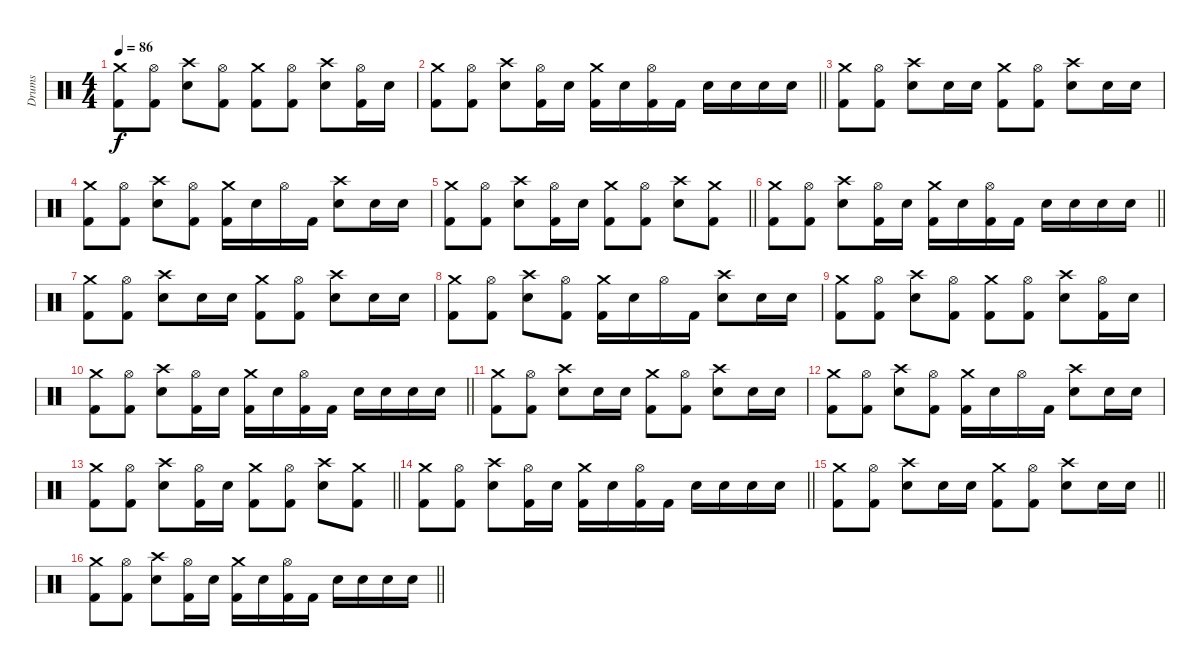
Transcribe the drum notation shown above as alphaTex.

\track ("Drums" "Drums") {instrument percussion}
\staff {score}
\articulation defaults
\ts (4 4)
\tempo 86
\clef neutral
\ks c
("Crash medium (hit)" "Kick (hit) 2").8{dy f} ("Hi-Hat (open)" "Kick (hit) 2").8 ("Crash high (hit)" "Electric Snare (hit)").8 ("Hi-Hat (open)" "Kick (hit) 2").8 ("Crash medium (hit)" "Kick (hit) 2").8 ("Hi-Hat (open)" "Kick (hit) 2").8 ("Crash high (hit)" "Electric Snare (hit)").8 ("Hi-Hat (open)" "Kick (hit) 2").16 "Electric Snare (hit)".16 |
\barLineRight lightlight
("Crash medium (hit)" "Kick (hit) 2").8 ("Hi-Hat (open)" "Kick (hit) 2").8 ("Crash high (hit)" "Electric Snare (hit)").8 ("Hi-Hat (open)" "Kick (hit) 2").16 "Electric Snare (hit)".16 ("Crash medium (hit)" "Kick (hit) 2").16 "Electric Snare (hit)".16 ("Hi-Hat (open)" "Kick (hit) 2").16 "Kick (hit) 2".16 "Electric Snare (hit)".16 "Electric Snare (hit)".16 "Electric Snare (hit)".16 "Electric Snare (hit)".16 |
("Crash medium (hit)" "Kick (hit) 2").8 ("Hi-Hat (open)" "Kick (hit) 2").8 ("Crash high (hit)" "Electric Snare (hit)").8 "Electric Snare (hit)".16 "Electric Snare (hit)".16 ("Crash medium (hit)" "Kick (hit) 2").8 ("Hi-Hat (open)" "Kick (hit) 2").8 ("Crash high (hit)" "Electric Snare (hit)").8 "Electric Snare (hit)".16 "Electric Snare (hit)".16 |
("Crash medium (hit)" "Kick (hit) 2").8 ("Hi-Hat (open)" "Kick (hit) 2").8 ("Crash high (hit)" "Electric Snare (hit)").8 ("Hi-Hat (open)" "Kick (hit) 2").8 ("Crash medium (hit)" "Kick (hit) 2").16 "Electric Snare (hit)".16 "Hi-Hat (open)".16 "Kick (hit) 2".16 ("Crash high (hit)" "Electric Snare (hit)").8 "Electric Snare (hit)".16 "Electric Snare (hit)".16 |
\barLineRight lightlight
("Crash medium (hit)" "Kick (hit) 2").8 ("Hi-Hat (open)" "Kick (hit) 2").8 ("Crash high (hit)" "Electric Snare (hit)").8 ("Hi-Hat (open)" "Kick (hit) 2").16 "Electric Snare (hit)".16 ("Crash medium (hit)" "Kick (hit) 2").8 ("Hi-Hat (open)" "Kick (hit) 2").8 ("Crash high (hit)" "Electric Snare (hit)").8 ("Crash medium (hit)" "Kick (hit) 2").8 |
\barLineRight lightlight
("Crash medium (hit)" "Kick (hit) 2").8 ("Hi-Hat (open)" "Kick (hit) 2").8 ("Crash high (hit)" "Electric Snare (hit)").8 ("Hi-Hat (open)" "Kick (hit) 2").16 "Electric Snare (hit)".16 ("Crash medium (hit)" "Kick (hit) 2").16 "Electric Snare (hit)".16 ("Hi-Hat (open)" "Kick (hit) 2").16 "Kick (hit) 2".16 "Electric Snare (hit)".16 "Electric Snare (hit)".16 "Electric Snare (hit)".16 "Electric Snare (hit)".16 |
("Crash medium (hit)" "Kick (hit) 2").8 ("Hi-Hat (open)" "Kick (hit) 2").8 ("Crash high (hit)" "Electric Snare (hit)").8 "Electric Snare (hit)".16 "Electric Snare (hit)".16 ("Crash medium (hit)" "Kick (hit) 2").8 ("Hi-Hat (open)" "Kick (hit) 2").8 ("Crash high (hit)" "Electric Snare (hit)").8 "Electric Snare (hit)".16 "Electric Snare (hit)".16 |
("Crash medium (hit)" "Kick (hit) 2").8 ("Hi-Hat (open)" "Kick (hit) 2").8 ("Crash high (hit)" "Electric Snare (hit)").8 ("Hi-Hat (open)" "Kick (hit) 2").8 ("Crash medium (hit)" "Kick (hit) 2").16 "Electric Snare (hit)".16 "Hi-Hat (open)".16 "Kick (hit) 2".16 ("Crash high (hit)" "Electric Snare (hit)").8 "Electric Snare (hit)".16 "Electric Snare (hit)".16 |
("Crash medium (hit)" "Kick (hit) 2").8 ("Hi-Hat (open)" "Kick (hit) 2").8 ("Crash high (hit)" "Electric Snare (hit)").8 ("Hi-Hat (open)" "Kick (hit) 2").8 ("Crash medium (hit)" "Kick (hit) 2").8 ("Hi-Hat (open)" "Kick (hit) 2").8 ("Crash high (hit)" "Electric Snare (hit)").8 ("Hi-Hat (open)" "Kick (hit) 2").16 "Electric Snare (hit)".16 |
\barLineRight lightlight
("Crash medium (hit)" "Kick (hit) 2").8 ("Hi-Hat (open)" "Kick (hit) 2").8 ("Crash high (hit)" "Electric Snare (hit)").8 ("Hi-Hat (open)" "Kick (hit) 2").16 "Electric Snare (hit)".16 ("Crash medium (hit)" "Kick (hit) 2").16 "Electric Snare (hit)".16 ("Hi-Hat (open)" "Kick (hit) 2").16 "Kick (hit) 2".16 "Electric Snare (hit)".16 "Electric Snare (hit)".16 "Electric Snare (hit)".16 "Electric Snare (hit)".16 |
("Crash medium (hit)" "Kick (hit) 2").8 ("Hi-Hat (open)" "Kick (hit) 2").8 ("Crash high (hit)" "Electric Snare (hit)").8 "Electric Snare (hit)".16 "Electric Snare (hit)".16 ("Crash medium (hit)" "Kick (hit) 2").8 ("Hi-Hat (open)" "Kick (hit) 2").8 ("Crash high (hit)" "Electric Snare (hit)").8 "Electric Snare (hit)".16 "Electric Snare (hit)".16 |
("Crash medium (hit)" "Kick (hit) 2").8 ("Hi-Hat (open)" "Kick (hit) 2").8 ("Crash high (hit)" "Electric Snare (hit)").8 ("Hi-Hat (open)" "Kick (hit) 2").8 ("Crash medium (hit)" "Kick (hit) 2").16 "Electric Snare (hit)".16 "Hi-Hat (open)".16 "Kick (hit) 2".16 ("Crash high (hit)" "Electric Snare (hit)").8 "Electric Snare (hit)".16 "Electric Snare (hit)".16 |
\barLineRight lightlight
("Crash medium (hit)" "Kick (hit) 2").8 ("Hi-Hat (open)" "Kick (hit) 2").8 ("Crash high (hit)" "Electric Snare (hit)").8 ("Hi-Hat (open)" "Kick (hit) 2").16 "Electric Snare (hit)".16 ("Crash medium (hit)" "Kick (hit) 2").8 ("Hi-Hat (open)" "Kick (hit) 2").8 ("Crash high (hit)" "Electric Snare (hit)").8 ("Crash medium (hit)" "Kick (hit) 2").8 |
\barLineRight lightlight
("Crash medium (hit)" "Kick (hit) 2").8 ("Hi-Hat (open)" "Kick (hit) 2").8 ("Crash high (hit)" "Electric Snare (hit)").8 ("Hi-Hat (open)" "Kick (hit) 2").16 "Electric Snare (hit)".16 ("Crash medium (hit)" "Kick (hit) 2").16 "Electric Snare (hit)".16 ("Hi-Hat (open)" "Kick (hit) 2").16 "Kick (hit) 2".16 "Electric Snare (hit)".16 "Electric Snare (hit)".16 "Electric Snare (hit)".16 "Electric Snare (hit)".16 |
\barLineRight lightlight
("Crash medium (hit)" "Kick (hit) 2").8 ("Hi-Hat (open)" "Kick (hit) 2").8 ("Crash high (hit)" "Electric Snare (hit)").8 "Electric Snare (hit)".16 "Electric Snare (hit)".16 ("Crash medium (hit)" "Kick (hit) 2").8 ("Hi-Hat (open)" "Kick (hit) 2").8 ("Crash high (hit)" "Electric Snare (hit)").8 "Electric Snare (hit)".16 "Electric Snare (hit)".16 |
\barLineRight lightlight
("Crash medium (hit)" "Kick (hit) 2").8 ("Hi-Hat (open)" "Kick (hit) 2").8 ("Crash high (hit)" "Electric Snare (hit)").8 ("Hi-Hat (open)" "Kick (hit) 2").16 "Electric Snare (hit)".16 ("Crash medium (hit)" "Kick (hit) 2").16 "Electric Snare (hit)".16 ("Hi-Hat (open)" "Kick (hit) 2").16 "Kick (hit) 2".16 "Electric Snare (hit)".16 "Electric Snare (hit)".16 "Electric Snare (hit)".16 "Electric Snare (hit)".16
